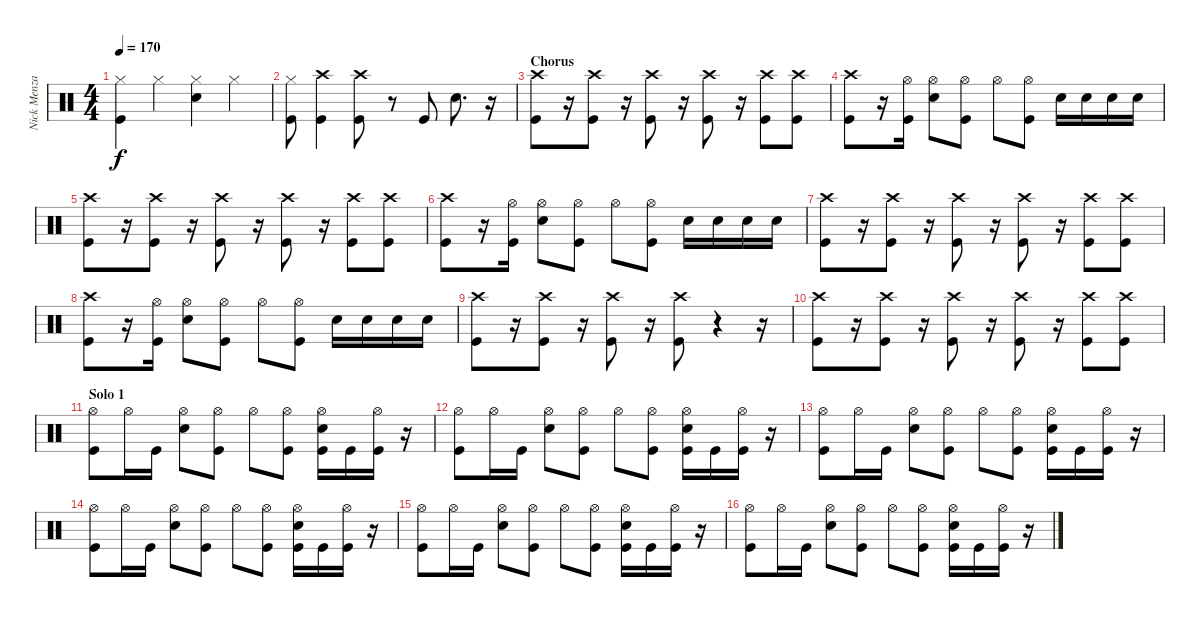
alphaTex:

\track ("Nick Menza" "Nick Menza") {instrument percussion}
\staff {score}
\articulation defaults
\ts (4 4)
\tempo 170
\clef neutral
\ks c
("Hi-Hat (closed)" "Kick (hit)").4{dy f} "Hi-Hat (closed)".4 ("Hi-Hat (closed)" "Snare (hit) 2").4 "Hi-Hat (closed)".4 |
("Hi-Hat (closed)" "Kick (hit)").8 ("Crash high (hit)" "Kick (hit)").4 ("Crash high (hit)" "Kick (hit)").8 r.8 "Kick (hit)".8 "Snare (hit) 2".8{d} r.16 |
\section ("" "Chorus")
("Crash high (hit)" "Kick (hit)").8 r.16 ("Crash high (hit)" "Kick (hit)").8 r.16 ("Crash high (hit)" "Kick (hit)").8 r.16 ("Crash high (hit)" "Kick (hit)").8 r.16 ("Crash high (hit)" "Kick (hit)").8 ("Crash high (hit)" "Kick (hit)").8 |
("Crash high (hit)" "Kick (hit)").8 r.16 ("Hi-Hat (open)" "Kick (hit)").16 ("Hi-Hat (open)" "Snare (hit) 2").8 ("Hi-Hat (open)" "Kick (hit)").8 "Hi-Hat (open)".8 ("Hi-Hat (open)" "Kick (hit)").8 "Snare (hit) 2".16 "Snare (hit) 2".16 "Snare (hit) 2".16 "Snare (hit) 2".16 |
("Crash high (hit)" "Kick (hit)").8 r.16 ("Crash high (hit)" "Kick (hit)").8 r.16 ("Crash high (hit)" "Kick (hit)").8 r.16 ("Crash high (hit)" "Kick (hit)").8 r.16 ("Crash high (hit)" "Kick (hit)").8 ("Crash high (hit)" "Kick (hit)").8 |
("Crash high (hit)" "Kick (hit)").8 r.16 ("Hi-Hat (open)" "Kick (hit)").16 ("Hi-Hat (open)" "Snare (hit) 2").8 ("Hi-Hat (open)" "Kick (hit)").8 "Hi-Hat (open)".8 ("Hi-Hat (open)" "Kick (hit)").8 "Snare (hit) 2".16 "Snare (hit) 2".16 "Snare (hit) 2".16 "Snare (hit) 2".16 |
("Crash high (hit)" "Kick (hit)").8 r.16 ("Crash high (hit)" "Kick (hit)").8 r.16 ("Crash high (hit)" "Kick (hit)").8 r.16 ("Crash high (hit)" "Kick (hit)").8 r.16 ("Crash high (hit)" "Kick (hit)").8 ("Crash high (hit)" "Kick (hit)").8 |
("Crash high (hit)" "Kick (hit)").8 r.16 ("Hi-Hat (open)" "Kick (hit)").16 ("Hi-Hat (open)" "Snare (hit) 2").8 ("Hi-Hat (open)" "Kick (hit)").8 "Hi-Hat (open)".8 ("Hi-Hat (open)" "Kick (hit)").8 "Snare (hit) 2".16 "Snare (hit) 2".16 "Snare (hit) 2".16 "Snare (hit) 2".16 |
("Crash high (hit)" "Kick (hit)").8 r.16 ("Crash high (hit)" "Kick (hit)").8 r.16 ("Crash high (hit)" "Kick (hit)").8 r.16 ("Crash high (hit)" "Kick (hit)").8 r.4 r.16 |
("Crash high (hit)" "Kick (hit)").8 r.16 ("Crash high (hit)" "Kick (hit)").8 r.16 ("Crash high (hit)" "Kick (hit)").8 r.16 ("Crash high (hit)" "Kick (hit)").8 r.16 ("Crash high (hit)" "Kick (hit)").8 ("Crash high (hit)" "Kick (hit)").8 |
\section ("" "Solo 1")
("Hi-Hat (open)" "Kick (hit)").8 "Hi-Hat (open)".16 "Kick (hit)".16 ("Hi-Hat (open)" "Snare (hit) 2").8 ("Hi-Hat (open)" "Kick (hit)").8 "Hi-Hat (open)".8 ("Hi-Hat (open)" "Kick (hit)").8 ("Hi-Hat (open)" "Snare (hit) 2" "Kick (hit)").16 "Kick (hit)".16 ("Hi-Hat (open)" "Kick (hit)").16 r.16 |
("Hi-Hat (open)" "Kick (hit)").8 "Hi-Hat (open)".16 "Kick (hit)".16 ("Hi-Hat (open)" "Snare (hit) 2").8 ("Hi-Hat (open)" "Kick (hit)").8 "Hi-Hat (open)".8 ("Hi-Hat (open)" "Kick (hit)").8 ("Hi-Hat (open)" "Snare (hit) 2" "Kick (hit)").16 "Kick (hit)".16 ("Hi-Hat (open)" "Kick (hit)").16 r.16 |
("Hi-Hat (open)" "Kick (hit)").8 "Hi-Hat (open)".16 "Kick (hit)".16 ("Hi-Hat (open)" "Snare (hit) 2").8 ("Hi-Hat (open)" "Kick (hit)").8 "Hi-Hat (open)".8 ("Hi-Hat (open)" "Kick (hit)").8 ("Hi-Hat (open)" "Snare (hit) 2" "Kick (hit)").16 "Kick (hit)".16 ("Hi-Hat (open)" "Kick (hit)").16 r.16 |
("Hi-Hat (open)" "Kick (hit)").8 "Hi-Hat (open)".16 "Kick (hit)".16 ("Hi-Hat (open)" "Snare (hit) 2").8 ("Hi-Hat (open)" "Kick (hit)").8 "Hi-Hat (open)".8 ("Hi-Hat (open)" "Kick (hit)").8 ("Hi-Hat (open)" "Snare (hit) 2" "Kick (hit)").16 "Kick (hit)".16 ("Hi-Hat (open)" "Kick (hit)").16 r.16 |
("Hi-Hat (open)" "Kick (hit)").8 "Hi-Hat (open)".16 "Kick (hit)".16 ("Hi-Hat (open)" "Snare (hit) 2").8 ("Hi-Hat (open)" "Kick (hit)").8 "Hi-Hat (open)".8 ("Hi-Hat (open)" "Kick (hit)").8 ("Hi-Hat (open)" "Snare (hit) 2" "Kick (hit)").16 "Kick (hit)".16 ("Hi-Hat (open)" "Kick (hit)").16 r.16 |
("Hi-Hat (open)" "Kick (hit)").8 "Hi-Hat (open)".16 "Kick (hit)".16 ("Hi-Hat (open)" "Snare (hit) 2").8 ("Hi-Hat (open)" "Kick (hit)").8 "Hi-Hat (open)".8 ("Hi-Hat (open)" "Kick (hit)").8 ("Hi-Hat (open)" "Snare (hit) 2" "Kick (hit)").16 "Kick (hit)".16 ("Hi-Hat (open)" "Kick (hit)").16 r.16
